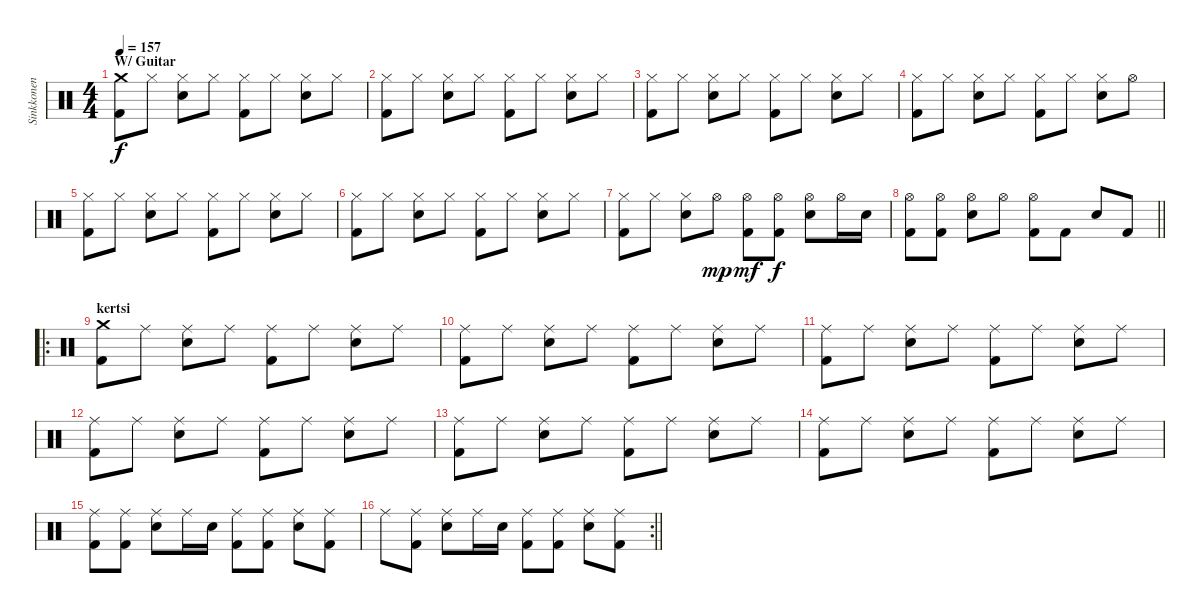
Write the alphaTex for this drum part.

\track ("Sinkkonen" "Sinkkonen") {instrument percussion}
\staff {score}
\articulation defaults
\ts (4 4)
\section ("" "W/ Guitar")
\tempo 157
\clef neutral
\ks c
("Kick (hit) 2" "Crash medium (hit)").8{dy f} "Hi-Hat (closed)".8 ("Hi-Hat (closed)" "Snare (hit) 2").8 "Hi-Hat (closed)".8 ("Kick (hit) 2" "Hi-Hat (closed)").8 "Hi-Hat (closed)".8 ("Hi-Hat (closed)" "Snare (hit) 2").8 "Hi-Hat (closed)".8 |
("Kick (hit) 2" "Hi-Hat (closed)").8 "Hi-Hat (closed)".8 ("Hi-Hat (closed)" "Snare (hit) 2").8 "Hi-Hat (closed)".8 ("Kick (hit) 2" "Hi-Hat (closed)").8 "Hi-Hat (closed)".8 ("Hi-Hat (closed)" "Snare (hit) 2").8 "Hi-Hat (closed)".8 |
("Kick (hit) 2" "Hi-Hat (closed)").8 "Hi-Hat (closed)".8 ("Hi-Hat (closed)" "Snare (hit) 2").8 "Hi-Hat (closed)".8 ("Kick (hit) 2" "Hi-Hat (closed)").8 "Hi-Hat (closed)".8 ("Hi-Hat (closed)" "Snare (hit) 2").8 "Hi-Hat (closed)".8 |
("Kick (hit) 2" "Hi-Hat (closed)").8 "Hi-Hat (closed)".8 ("Hi-Hat (closed)" "Snare (hit) 2").8 "Hi-Hat (closed)".8 ("Kick (hit) 2" "Hi-Hat (closed)").8 "Hi-Hat (closed)".8 ("Hi-Hat (closed)" "Snare (hit) 2").8 "Hi-Hat (open)".8 |
("Kick (hit) 2" "Hi-Hat (closed)").8 "Hi-Hat (closed)".8 ("Hi-Hat (closed)" "Snare (hit) 2").8 "Hi-Hat (closed)".8 ("Kick (hit) 2" "Hi-Hat (closed)").8 "Hi-Hat (closed)".8 ("Hi-Hat (closed)" "Snare (hit) 2").8 "Hi-Hat (closed)".8 |
("Kick (hit) 2" "Hi-Hat (closed)").8 "Hi-Hat (closed)".8 ("Hi-Hat (closed)" "Snare (hit) 2").8 "Hi-Hat (closed)".8 ("Kick (hit) 2" "Hi-Hat (closed)").8 "Hi-Hat (closed)".8 ("Hi-Hat (closed)" "Snare (hit) 2").8 "Hi-Hat (closed)".8 |
("Kick (hit) 2" "Hi-Hat (closed)").8 "Hi-Hat (closed)".8 ("Hi-Hat (closed)" "Snare (hit) 2").8 "Hi-Hat (open)".8{dy mp} ("Kick (hit) 2" "Hi-Hat (open)").8{dy mf} ("Kick (hit) 2" "Hi-Hat (open)").8{dy f} ("Hi-Hat (open)" "Snare (hit) 2").8 "Hi-Hat (open)".16 "Snare (hit) 2".16 |
\barLineRight lightlight
("Kick (hit) 2" "Hi-Hat (open)").8 ("Kick (hit) 2" "Hi-Hat (open)").8 ("Hi-Hat (open)" "Snare (hit) 2").8 "Hi-Hat (open)".8 ("Kick (hit) 2" "Hi-Hat (open)").8 "Kick (hit) 2".8 "Snare (hit) 2".8 "Kick (hit) 2".8 |
\ro
\section ("" "kertsi")
("Kick (hit) 2" "Crash medium (hit)").8 "Ride (middle)".8 ("Ride (middle)" "Snare (hit) 2").8 "Ride (middle)".8 ("Kick (hit) 2" "Ride (middle)").8 "Ride (middle)".8 ("Ride (middle)" "Snare (hit) 2").8 "Ride (middle)".8 |
("Kick (hit) 2" "Ride (middle)").8 "Ride (middle)".8 ("Ride (middle)" "Snare (hit) 2").8 "Ride (middle)".8 ("Kick (hit) 2" "Ride (middle)").8 "Ride (middle)".8 ("Ride (middle)" "Snare (hit) 2").8 "Ride (middle)".8 |
("Kick (hit) 2" "Ride (middle)").8 "Ride (middle)".8 ("Ride (middle)" "Snare (hit) 2").8 "Ride (middle)".8 ("Kick (hit) 2" "Ride (middle)").8 "Ride (middle)".8 ("Ride (middle)" "Snare (hit) 2").8 "Ride (middle)".8 |
("Kick (hit) 2" "Ride (middle)").8 "Ride (middle)".8 ("Ride (middle)" "Snare (hit) 2").8 "Ride (middle)".8 ("Kick (hit) 2" "Ride (middle)").8 "Ride (middle)".8 ("Ride (middle)" "Snare (hit) 2").8 "Ride (middle)".8 |
("Kick (hit) 2" "Ride (middle)").8 "Ride (middle)".8 ("Ride (middle)" "Snare (hit) 2").8 "Ride (middle)".8 ("Kick (hit) 2" "Ride (middle)").8 "Ride (middle)".8 ("Ride (middle)" "Snare (hit) 2").8 "Ride (middle)".8 |
("Kick (hit) 2" "Ride (middle)").8 "Ride (middle)".8 ("Ride (middle)" "Snare (hit) 2").8 "Ride (middle)".8 ("Kick (hit) 2" "Ride (middle)").8 "Ride (middle)".8 ("Ride (middle)" "Snare (hit) 2").8 "Ride (middle)".8 |
("Kick (hit) 2" "Ride (middle)").8 ("Kick (hit) 2" "Ride (middle)").8 ("Ride (middle)" "Snare (hit) 2").8 "Ride (middle)".16 "Snare (hit) 2".16 ("Kick (hit) 2" "Ride (middle)").8 ("Kick (hit) 2" "Ride (middle)").8 ("Ride (middle)" "Snare (hit) 2").8 ("Kick (hit) 2" "Ride (middle)").8 |
\rc 2
\barLineRight lightlight "Ride (middle)".8
("Kick (hit) 2" "Ride (middle)").8 ("Ride (middle)" "Snare (hit) 2").8 "Ride (middle)".16 "Snare (hit) 2".16 ("Kick (hit) 2" "Ride (middle)").8 ("Kick (hit) 2" "Ride (middle)").8 ("Ride (middle)" "Snare (hit) 2").8 ("Kick (hit) 2" "Ride (middle)").8
